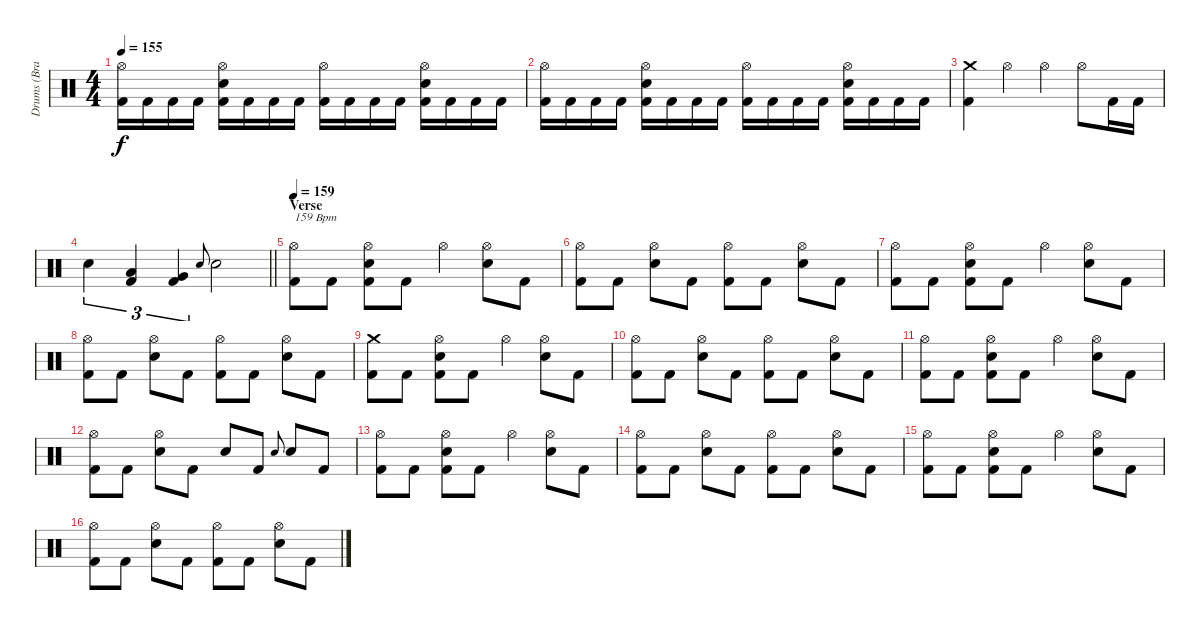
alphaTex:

\track ("Drums (Brandon Saller)" "Drums (Bra") {instrument percussion}
\staff {score}
\articulation defaults
\ts (4 4)
\tempo 155
\clef neutral
\ks c
("Hi-Hat (open)" "Kick (hit) 2").16{dy f} "Kick (hit) 2".16 "Kick (hit) 2".16 "Kick (hit) 2".16 ("Hi-Hat (open)" "Electric Snare (hit)" "Kick (hit) 2").16 "Kick (hit) 2".16 "Kick (hit) 2".16 "Kick (hit) 2".16 ("Hi-Hat (open)" "Kick (hit) 2").16 "Kick (hit) 2".16 "Kick (hit) 2".16 "Kick (hit) 2".16 ("Hi-Hat (open)" "Electric Snare (hit)" "Kick (hit) 2").16 "Kick (hit) 2".16 "Kick (hit) 2".16 "Kick (hit) 2".16 |
("Hi-Hat (open)" "Kick (hit) 2").16 "Kick (hit) 2".16 "Kick (hit) 2".16 "Kick (hit) 2".16 ("Hi-Hat (open)" "Electric Snare (hit)" "Kick (hit) 2").16 "Kick (hit) 2".16 "Kick (hit) 2".16 "Kick (hit) 2".16 ("Hi-Hat (open)" "Kick (hit) 2").16 "Kick (hit) 2".16 "Kick (hit) 2".16 "Kick (hit) 2".16 ("Hi-Hat (open)" "Electric Snare (hit)" "Kick (hit) 2").16 "Kick (hit) 2".16 "Kick (hit) 2".16 "Kick (hit) 2".16 |
("Crash medium (hit)" "Kick (hit) 2").4 "Hi-Hat (open)".4 "Hi-Hat (open)".4 "Hi-Hat (open)".8 "Kick (hit) 2".16 "Kick (hit) 2".16 |
\barLineRight lightlight "Electric Snare (hit)".4{tu (3 2)}
("Low Tom (hit)" "Kick (hit) 2").4{tu (3 2)} ("Very Low Tom (hit)" "Kick (hit) 2").4{tu (3 2)} "Electric Snare (hit)".8{gr onbeat} "Electric Snare (hit)".2 |
\section ("" "Verse")
\tempo 159
("Hi-Hat (open)" "Kick (hit) 2").8{txt "159 Bpm"} "Kick (hit) 2".8 ("Hi-Hat (open)" "Electric Snare (hit)" "Kick (hit) 2").8 "Kick (hit) 2".8 "Hi-Hat (open)".4 ("Hi-Hat (open)" "Electric Snare (hit)").8 "Kick (hit) 2".8 |
("Hi-Hat (open)" "Kick (hit) 2").8 "Kick (hit) 2".8 ("Hi-Hat (open)" "Electric Snare (hit)").8 "Kick (hit) 2".8 ("Hi-Hat (open)" "Kick (hit) 2").8 "Kick (hit) 2".8 ("Hi-Hat (open)" "Electric Snare (hit)").8 "Kick (hit) 2".8 |
("Hi-Hat (open)" "Kick (hit) 2").8 "Kick (hit) 2".8 ("Hi-Hat (open)" "Electric Snare (hit)" "Kick (hit) 2").8 "Kick (hit) 2".8 "Hi-Hat (open)".4 ("Hi-Hat (open)" "Electric Snare (hit)").8 "Kick (hit) 2".8 |
("Hi-Hat (open)" "Kick (hit) 2").8 "Kick (hit) 2".8 ("Hi-Hat (open)" "Electric Snare (hit)").8 "Kick (hit) 2".8 ("Hi-Hat (open)" "Kick (hit) 2").8 "Kick (hit) 2".8 ("Hi-Hat (open)" "Electric Snare (hit)").8 "Kick (hit) 2".8 |
("Crash medium (hit)" "Kick (hit) 2").8 "Kick (hit) 2".8 ("Hi-Hat (open)" "Electric Snare (hit)" "Kick (hit) 2").8 "Kick (hit) 2".8 "Hi-Hat (open)".4 ("Hi-Hat (open)" "Electric Snare (hit)").8 "Kick (hit) 2".8 |
("Hi-Hat (open)" "Kick (hit) 2").8 "Kick (hit) 2".8 ("Hi-Hat (open)" "Electric Snare (hit)").8 "Kick (hit) 2".8 ("Hi-Hat (open)" "Kick (hit) 2").8 "Kick (hit) 2".8 ("Hi-Hat (open)" "Electric Snare (hit)").8 "Kick (hit) 2".8 |
("Hi-Hat (open)" "Kick (hit) 2").8 "Kick (hit) 2".8 ("Hi-Hat (open)" "Electric Snare (hit)" "Kick (hit) 2").8 "Kick (hit) 2".8 "Hi-Hat (open)".4 ("Hi-Hat (open)" "Electric Snare (hit)").8 "Kick (hit) 2".8 |
("Hi-Hat (open)" "Kick (hit) 2").8 "Kick (hit) 2".8 ("Hi-Hat (open)" "Electric Snare (hit)").8 "Kick (hit) 2".8 "Electric Snare (hit)".8 "Kick (hit) 2".8 "Electric Snare (hit)".8{gr onbeat} "Electric Snare (hit)".8 "Kick (hit) 2".8 |
("Hi-Hat (open)" "Kick (hit) 2").8 "Kick (hit) 2".8 ("Hi-Hat (open)" "Electric Snare (hit)" "Kick (hit) 2").8 "Kick (hit) 2".8 "Hi-Hat (open)".4 ("Hi-Hat (open)" "Electric Snare (hit)").8 "Kick (hit) 2".8 |
("Hi-Hat (open)" "Kick (hit) 2").8 "Kick (hit) 2".8 ("Hi-Hat (open)" "Electric Snare (hit)").8 "Kick (hit) 2".8 ("Hi-Hat (open)" "Kick (hit) 2").8 "Kick (hit) 2".8 ("Hi-Hat (open)" "Electric Snare (hit)").8 "Kick (hit) 2".8 |
("Hi-Hat (open)" "Kick (hit) 2").8 "Kick (hit) 2".8 ("Hi-Hat (open)" "Electric Snare (hit)" "Kick (hit) 2").8 "Kick (hit) 2".8 "Hi-Hat (open)".4 ("Hi-Hat (open)" "Electric Snare (hit)").8 "Kick (hit) 2".8 |
("Hi-Hat (open)" "Kick (hit) 2").8 "Kick (hit) 2".8 ("Hi-Hat (open)" "Electric Snare (hit)").8 "Kick (hit) 2".8 ("Hi-Hat (open)" "Kick (hit) 2").8 "Kick (hit) 2".8 ("Hi-Hat (open)" "Electric Snare (hit)").8 "Kick (hit) 2".8
